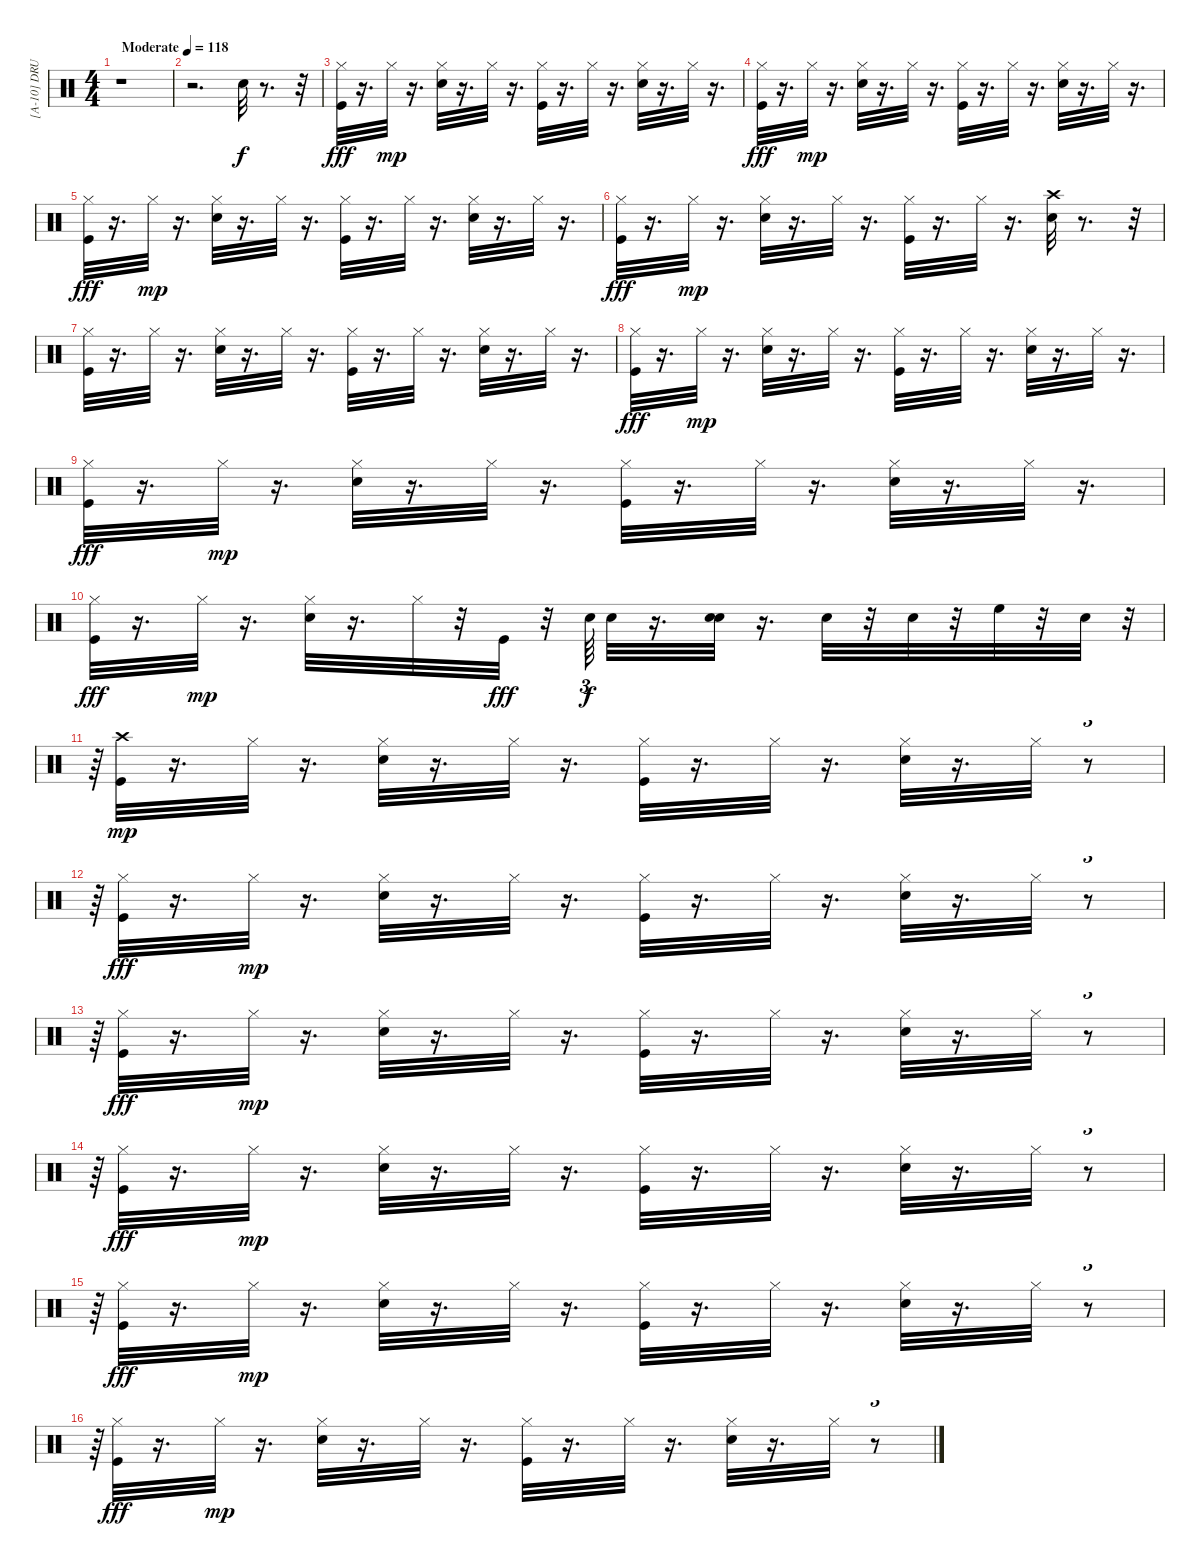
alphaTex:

\track ("[A-10] DRUM" "[A-10] DRU") {instrument percussion}
\staff {score}
\articulation defaults
\ts (4 4)
\tempo (118 "Moderate")
\clef neutral
\ks c
r.1{dy f} |
r.2{d} "Snare (hit) 2".32 r.8{d} r.32 |
("Hi-Hat (closed)" "Kick (hit)").32{dy fff} r.16{d} "Hi-Hat (closed)".32{dy mp} r.16{d} ("Snare (hit) 2" "Hi-Hat (closed)").32 r.16{d} "Hi-Hat (closed)".32 r.16{d} ("Kick (hit)" "Hi-Hat (closed)").32 r.16{d} "Hi-Hat (closed)".32 r.16{d} ("Snare (hit) 2" "Hi-Hat (closed)").32 r.16{d} "Hi-Hat (closed)".32 r.16{d} |
("Hi-Hat (closed)" "Kick (hit)").32{dy fff} r.16{d} "Hi-Hat (closed)".32{dy mp} r.16{d} ("Snare (hit) 2" "Hi-Hat (closed)").32 r.16{d} "Hi-Hat (closed)".32 r.16{d} ("Kick (hit)" "Hi-Hat (closed)").32 r.16{d} "Hi-Hat (closed)".32 r.16{d} ("Snare (hit) 2" "Hi-Hat (closed)").32 r.16{d} "Hi-Hat (closed)".32 r.16{d} |
("Hi-Hat (closed)" "Kick (hit)").32{dy fff} r.16{d} "Hi-Hat (closed)".32{dy mp} r.16{d} ("Snare (hit) 2" "Hi-Hat (closed)").32 r.16{d} "Hi-Hat (closed)".32 r.16{d} ("Kick (hit)" "Hi-Hat (closed)").32 r.16{d} "Hi-Hat (closed)".32 r.16{d} ("Snare (hit) 2" "Hi-Hat (closed)").32 r.16{d} "Hi-Hat (closed)".32 r.16{d} |
("Hi-Hat (closed)" "Kick (hit)").32{dy fff} r.16{d} "Hi-Hat (closed)".32{dy mp} r.16{d} ("Snare (hit) 2" "Hi-Hat (closed)").32 r.16{d} "Hi-Hat (closed)".32 r.16{d} ("Kick (hit)" "Hi-Hat (closed)").32 r.16{d} "Hi-Hat (closed)".32 r.16{d} ("Snare (hit) 2" "Crash high (hit)").32 r.8{d} r.32 |
("Kick (hit)" "Hi-Hat (closed)").32 r.16{d} "Hi-Hat (closed)".32 r.16{d} ("Snare (hit) 2" "Hi-Hat (closed)").32 r.16{d} "Hi-Hat (closed)".32 r.16{d} ("Kick (hit)" "Hi-Hat (closed)").32 r.16{d} "Hi-Hat (closed)".32 r.16{d} ("Snare (hit) 2" "Hi-Hat (closed)").32 r.16{d} "Hi-Hat (closed)".32 r.16{d} |
("Hi-Hat (closed)" "Kick (hit)").32{dy fff} r.16{d} "Hi-Hat (closed)".32{dy mp} r.16{d} ("Snare (hit) 2" "Hi-Hat (closed)").32 r.16{d} "Hi-Hat (closed)".32 r.16{d} ("Kick (hit)" "Hi-Hat (closed)").32 r.16{d} "Hi-Hat (closed)".32 r.16{d} ("Snare (hit) 2" "Hi-Hat (closed)").32 r.16{d} "Hi-Hat (closed)".32 r.16{d} |
("Hi-Hat (closed)" "Kick (hit)").32{dy fff} r.16{d} "Hi-Hat (closed)".32{dy mp} r.16{d} ("Snare (hit) 2" "Hi-Hat (closed)").32 r.16{d} "Hi-Hat (closed)".32 r.16{d} ("Kick (hit)" "Hi-Hat (closed)").32 r.16{d} "Hi-Hat (closed)".32 r.16{d} ("Snare (hit) 2" "Hi-Hat (closed)").32 r.16{d} "Hi-Hat (closed)".32 r.16{d} |
("Hi-Hat (closed)" "Kick (hit)").32{dy fff} r.16{d} "Hi-Hat (closed)".32{dy mp} r.16{d} ("Snare (hit) 2" "Hi-Hat (closed)").32 r.16{d} "Hi-Hat (closed)".32 r.32 "Kick (hit)".32{dy fff} r.32 "Snare (hit) 2".64{tu (3 2) dy f} "Snare (hit) 2".32 r.16{d} ("Snare (hit) 2" "Snare (hit) 2").32 r.16{d} "Snare (hit) 2".32 r.32 "Snare (hit) 2".32 r.32 "High Floor Tom (hit)".32 r.32 "Snare (hit) 2".32 r.32{tu (3 2)} |
r.64{tu (3 2)} ("Kick (hit)" "Crash high (hit)").32{dy mp} r.16{d} "Hi-Hat (closed)".32 r.16{d} ("Snare (hit) 2" "Hi-Hat (closed)").32 r.16{d} "Hi-Hat (closed)".32 r.16{d} ("Kick (hit)" "Hi-Hat (closed)").32 r.16{d} "Hi-Hat (closed)".32 r.16{d} ("Snare (hit) 2" "Hi-Hat (closed)").32 r.16{d} "Hi-Hat (closed)".32 r.8{tu (3 2)} |
r.64{tu (3 2)} ("Hi-Hat (closed)" "Kick (hit)").32{dy fff} r.16{d} "Hi-Hat (closed)".32{dy mp} r.16{d} ("Snare (hit) 2" "Hi-Hat (closed)").32 r.16{d} "Hi-Hat (closed)".32 r.16{d} ("Kick (hit)" "Hi-Hat (closed)").32 r.16{d} "Hi-Hat (closed)".32 r.16{d} ("Snare (hit) 2" "Hi-Hat (closed)").32 r.16{d} "Hi-Hat (closed)".32 r.8{tu (3 2)} |
r.64{tu (3 2)} ("Hi-Hat (closed)" "Kick (hit)").32{dy fff} r.16{d} "Hi-Hat (closed)".32{dy mp} r.16{d} ("Snare (hit) 2" "Hi-Hat (closed)").32 r.16{d} "Hi-Hat (closed)".32 r.16{d} ("Kick (hit)" "Hi-Hat (closed)").32 r.16{d} "Hi-Hat (closed)".32 r.16{d} ("Snare (hit) 2" "Hi-Hat (closed)").32 r.16{d} "Hi-Hat (closed)".32 r.8{tu (3 2)} |
r.64{tu (3 2)} ("Hi-Hat (closed)" "Kick (hit)").32{dy fff} r.16{d} "Hi-Hat (closed)".32{dy mp} r.16{d} ("Snare (hit) 2" "Hi-Hat (closed)").32 r.16{d} "Hi-Hat (closed)".32 r.16{d} ("Kick (hit)" "Hi-Hat (closed)").32 r.16{d} "Hi-Hat (closed)".32 r.16{d} ("Snare (hit) 2" "Hi-Hat (closed)").32 r.16{d} "Hi-Hat (closed)".32 r.8{tu (3 2)} |
r.64{tu (3 2)} ("Hi-Hat (closed)" "Kick (hit)").32{dy fff} r.16{d} "Hi-Hat (closed)".32{dy mp} r.16{d} ("Snare (hit) 2" "Hi-Hat (closed)").32 r.16{d} "Hi-Hat (closed)".32 r.16{d} ("Kick (hit)" "Hi-Hat (closed)").32 r.16{d} "Hi-Hat (closed)".32 r.16{d} ("Snare (hit) 2" "Hi-Hat (closed)").32 r.16{d} "Hi-Hat (closed)".32 r.8{tu (3 2)} |
r.64{tu (3 2)} ("Hi-Hat (closed)" "Kick (hit)").32{dy fff} r.16{d} "Hi-Hat (closed)".32{dy mp} r.16{d} ("Snare (hit) 2" "Hi-Hat (closed)").32 r.16{d} "Hi-Hat (closed)".32 r.16{d} ("Kick (hit)" "Hi-Hat (closed)").32 r.16{d} "Hi-Hat (closed)".32 r.16{d} ("Snare (hit) 2" "Hi-Hat (closed)").32 r.16{d} "Hi-Hat (closed)".32 r.8{tu (3 2)}
